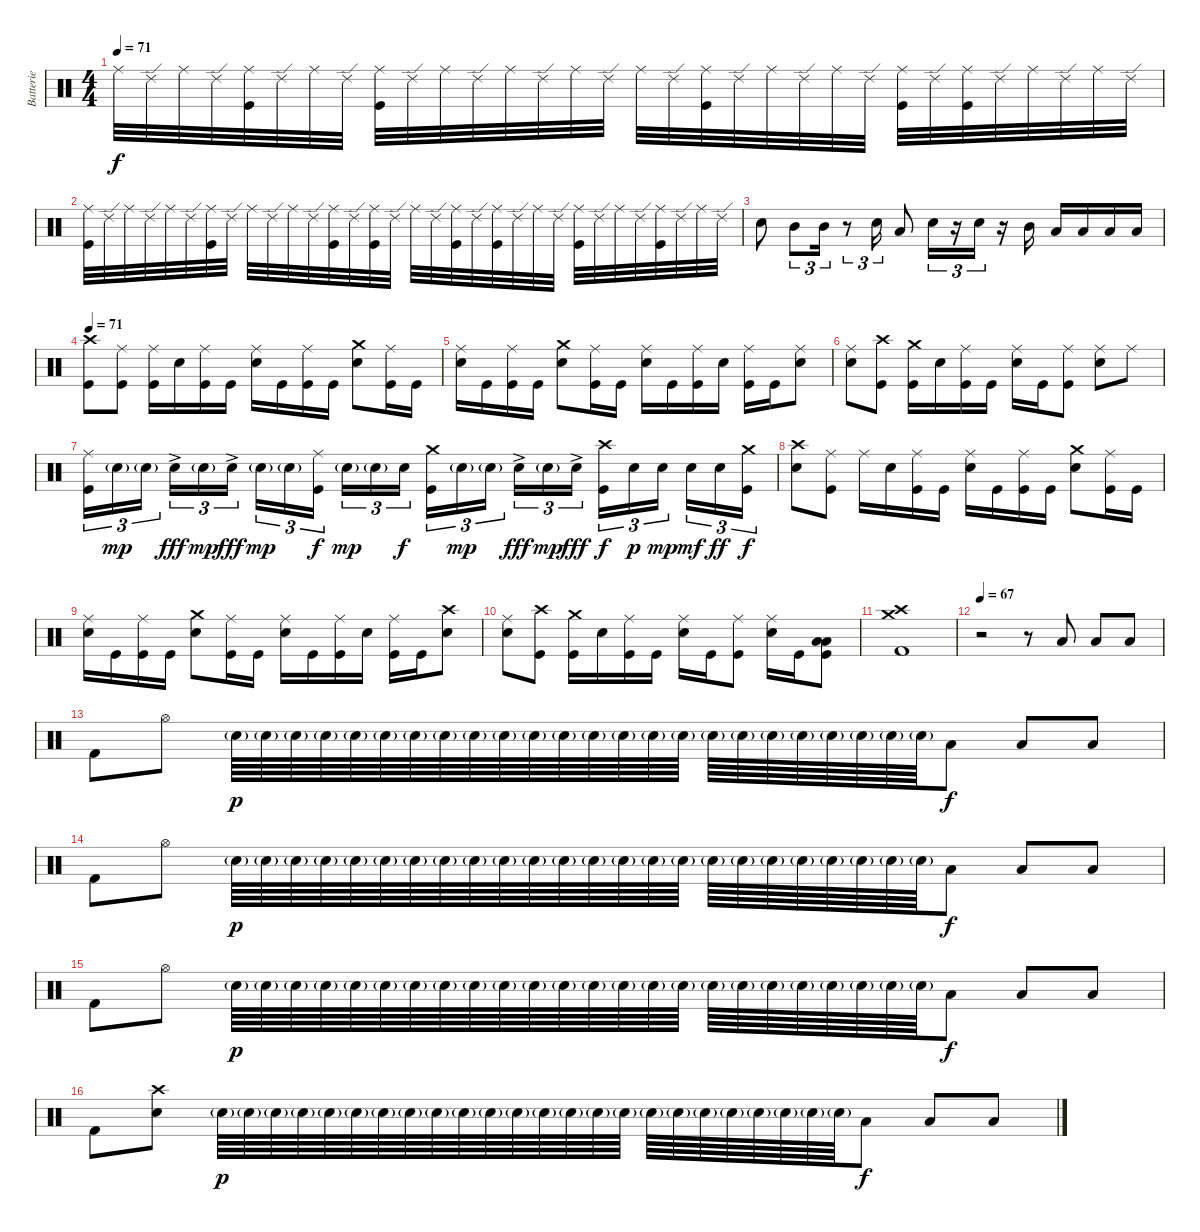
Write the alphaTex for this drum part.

\track ("Batterie" "Batterie") {instrument percussion}
\staff {score}
\articulation defaults
\ts (4 4)
\tempo 71
\clef neutral
\ks c "Ride (middle)".32{dy f} "Ride (edge) 2".32 "Ride (middle)".32 "Ride (edge) 2".32
("Ride (middle)" "Kick (hit)").32 "Ride (edge) 2".32 "Ride (middle)".32 "Ride (edge) 2".32 ("Ride (middle)" "Kick (hit)").32 "Ride (edge) 2".32 "Ride (middle)".32 "Ride (edge) 2".32 "Ride (middle)".32 "Ride (edge) 2".32 "Ride (middle)".32 "Ride (edge) 2".32 "Ride (middle)".32 "Ride (edge) 2".32 ("Ride (middle)" "Kick (hit)").32 "Ride (edge) 2".32 "Ride (middle)".32 "Ride (edge) 2".32 "Ride (middle)".32 "Ride (edge) 2".32 ("Ride (middle)" "Kick (hit)").32 "Ride (edge) 2".32 ("Ride (middle)" "Kick (hit)").32 "Ride (edge) 2".32 "Ride (middle)".32 "Ride (edge) 2".32 "Ride (middle)".32 "Ride (edge) 2".32 |
("Ride (middle)" "Kick (hit)").32 "Ride (edge) 2".32 "Ride (middle)".32 "Ride (edge) 2".32 "Ride (middle)".32 "Ride (edge) 2".32 ("Ride (middle)" "Kick (hit)").32 "Ride (edge) 2".32 "Ride (middle)".32 "Ride (edge) 2".32 "Ride (middle)".32 "Ride (edge) 2".32 ("Ride (middle)" "Kick (hit)").32 "Ride (edge) 2".32 ("Ride (middle)" "Kick (hit)").32 "Ride (edge) 2".32 "Ride (middle)".32 "Ride (edge) 2".32 ("Ride (middle)" "Kick (hit)").32 "Ride (edge) 2".32 ("Ride (middle)" "Kick (hit)").32 "Ride (edge) 2".32 "Ride (middle)".32 "Ride (edge) 2".32 ("Ride (middle)" "Kick (hit)").32 "Ride (edge) 2".32 "Ride (middle)".32 "Ride (edge) 2".32 ("Ride (middle)" "Kick (hit)").32 "Ride (edge) 2".32 "Ride (middle)".32 "Ride (edge) 2".32 |
"Electric Snare (hit)".8{volume 16} "Mid Tom (hit)".8{tu (3 2)} "Mid Tom (hit)".16{tu (3 2)} r.8{tu (3 2)} "Electric Snare (hit)".16{tu (3 2)} "Low Tom (hit)".8 "Electric Snare (hit)".16{tu (3 2)} r.16{tu (3 2)} "Electric Snare (hit)".16{tu (3 2)} r.16 "Mid Tom (hit)".16 "Low Tom (hit)".16 "Low Tom (hit)".16 "Low Floor Tom (hit)".16 "Low Floor Tom (hit)".16 |
\tempo 68
\tempo 71
("Crash high (hit)" "Kick (hit)").8 ("Ride (middle)" "Kick (hit)").8 ("Ride (middle)" "Kick (hit)").16 "Electric Snare (hit)".16 ("Ride (middle)" "Kick (hit)").16 "Kick (hit)".16 ("Ride (middle)" "Electric Snare (hit)").16 "Kick (hit)".16 ("Ride (middle)" "Kick (hit)").16 "Kick (hit)".16 ("Crash medium (hit)" "Electric Snare (hit)").8 ("Ride (middle)" "Kick (hit)").16 "Kick (hit)".16 |
("Ride (middle)" "Electric Snare (hit)").16 "Kick (hit)".16 ("Ride (middle)" "Kick (hit)").16 "Kick (hit)".16 ("Crash medium (hit)" "Electric Snare (hit)").8 ("Ride (middle)" "Kick (hit)").16 "Kick (hit)".16 ("Ride (middle)" "Electric Snare (hit)").16 "Kick (hit)".16 ("Ride (middle)" "Kick (hit)").16 "Electric Snare (hit)".16 ("Ride (middle)" "Kick (hit)").16 "Kick (hit)".16 ("Ride (middle)" "Electric Snare (hit)").8 |
("Ride (middle)" "Electric Snare (hit)").8 ("Crash high (hit)" "Kick (hit)").8 ("Crash medium (hit)" "Kick (hit)").16 "Electric Snare (hit)".16 ("Ride (middle)" "Kick (hit)").16 "Kick (hit)".16 ("Ride (middle)" "Electric Snare (hit)").16 "Kick (hit)".16 ("Ride (middle)" "Kick (hit)").8 ("Ride (middle)" "Electric Snare (hit)").8 "Ride (middle)".8 |
("Ride (middle)" "Kick (hit)").16{tu (3 2)} "Electric Snare (hit)"{g}.16{tu (3 2) dy mp} "Electric Snare (hit)"{g}.16{tu (3 2)} "Electric Snare (hit)"{ac}.16{tu (3 2) dy fff} "Electric Snare (hit)"{g}.16{tu (3 2) dy mp} "Electric Snare (hit)"{ac}.16{tu (3 2) dy fff} "Electric Snare (hit)"{g}.16{tu (3 2) dy mp} "Electric Snare (hit)"{g}.16{tu (3 2)} ("Ride (middle)" "Kick (hit)").16{tu (3 2) dy f} "Electric Snare (hit)"{g}.16{tu (3 2) dy mp} "Electric Snare (hit)"{g}.16{tu (3 2)} "Electric Snare (hit)".16{tu (3 2) dy f} ("Crash medium (hit)" "Kick (hit)").16{tu (3 2)} "Electric Snare (hit)"{g}.16{tu (3 2) dy mp} "Electric Snare (hit)"{g}.16{tu (3 2)} "Electric Snare (hit)"{ac}.16{tu (3 2) dy fff} "Electric Snare (hit)"{g}.16{tu (3 2) dy mp} "Electric Snare (hit)"{ac}.16{tu (3 2) dy fff} ("Crash high (hit)" "Kick (hit)").16{tu (3 2) dy f} "Electric Snare (hit)".16{tu (3 2) dy p} "Electric Snare (hit)".16{tu (3 2) dy mp} "Electric Snare (hit)".16{tu (3 2) dy mf} "Electric Snare (hit)".16{tu (3 2) dy ff} ("Crash medium (hit)" "Kick (hit)").16{tu (3 2) dy f} |
("Crash high (hit)" "Electric Snare (hit)").8 ("Ride (middle)" "Kick (hit)").8 "Ride (middle)".16 "Electric Snare (hit)".16 ("Ride (middle)" "Kick (hit)").16 "Kick (hit)".16 ("Ride (middle)" "Electric Snare (hit)").16 "Kick (hit)".16 ("Ride (middle)" "Kick (hit)").16 "Kick (hit)".16 ("Crash medium (hit)" "Electric Snare (hit)").8 ("Ride (middle)" "Kick (hit)").16 "Kick (hit)".16 |
("Ride (middle)" "Electric Snare (hit)").16 "Kick (hit)".16 ("Ride (middle)" "Kick (hit)").16 "Kick (hit)".16 ("Crash medium (hit)" "Electric Snare (hit)").8 ("Ride (middle)" "Kick (hit)").16 "Kick (hit)".16 ("Ride (middle)" "Electric Snare (hit)").16 "Kick (hit)".16 ("Ride (middle)" "Kick (hit)").16 "Electric Snare (hit)".16 ("Ride (middle)" "Kick (hit)").16 "Kick (hit)".16 ("Crash high (hit)" "Electric Snare (hit)").8 |
("Ride (middle)" "Electric Snare (hit)").8 ("Crash high (hit)" "Kick (hit)").8 ("Crash medium (hit)" "Kick (hit)").16 "Electric Snare (hit)".16 ("Ride (middle)" "Kick (hit)").16 "Kick (hit)".16 ("Ride (middle)" "Electric Snare (hit)").16 "Kick (hit)".16 ("Ride (middle)" "Kick (hit)").8 ("Ride (middle)" "Electric Snare (hit)").16 "Kick (hit)".16 ("Low Tom (hit)" "Low Floor Tom (hit)" "Kick (hit)").8 |
("Crash high (hit)" "Crash medium (hit)" "Kick (hit) 2").1 |
\tempo 67
r.2{volume 11} r.8 "Low Tom (hit)".8 "Low Floor Tom (hit)".8 "Low Tom (hit)".8 |
"Kick (hit) 2".8 "Hi-Hat (open)".8 "Electric Snare (hit)"{g}.64{dy p} "Electric Snare (hit)"{g}.64 "Electric Snare (hit)"{g}.64 "Electric Snare (hit)"{g}.64 "Electric Snare (hit)"{g}.64 "Electric Snare (hit)"{g}.64 "Electric Snare (hit)"{g}.64 "Electric Snare (hit)"{g}.64 "Electric Snare (hit)"{g}.64 "Electric Snare (hit)"{g}.64 "Electric Snare (hit)"{g}.64 "Electric Snare (hit)"{g}.64 "Electric Snare (hit)"{g}.64 "Electric Snare (hit)"{g}.64 "Electric Snare (hit)"{g}.64 "Electric Snare (hit)"{g}.64 "Electric Snare (hit)"{g}.64 "Electric Snare (hit)"{g}.64 "Electric Snare (hit)"{g}.64 "Electric Snare (hit)"{g}.64 "Electric Snare (hit)"{g}.64 "Electric Snare (hit)"{g}.64 "Electric Snare (hit)"{g}.64 "Electric Snare (hit)"{g}.64 "Low Tom (hit)".8{dy f} "Low Floor Tom (hit)".8 "Low Tom (hit)".8 |
"Kick (hit) 2".8 "Hi-Hat (open)".8 "Electric Snare (hit)"{g}.64{dy p} "Electric Snare (hit)"{g}.64 "Electric Snare (hit)"{g}.64 "Electric Snare (hit)"{g}.64 "Electric Snare (hit)"{g}.64 "Electric Snare (hit)"{g}.64 "Electric Snare (hit)"{g}.64 "Electric Snare (hit)"{g}.64 "Electric Snare (hit)"{g}.64 "Electric Snare (hit)"{g}.64 "Electric Snare (hit)"{g}.64 "Electric Snare (hit)"{g}.64 "Electric Snare (hit)"{g}.64 "Electric Snare (hit)"{g}.64 "Electric Snare (hit)"{g}.64 "Electric Snare (hit)"{g}.64 "Electric Snare (hit)"{g}.64 "Electric Snare (hit)"{g}.64 "Electric Snare (hit)"{g}.64 "Electric Snare (hit)"{g}.64 "Electric Snare (hit)"{g}.64 "Electric Snare (hit)"{g}.64 "Electric Snare (hit)"{g}.64 "Electric Snare (hit)"{g}.64 "Low Tom (hit)".8{dy f} "Low Floor Tom (hit)".8 "Low Tom (hit)".8 |
"Kick (hit) 2".8 "Hi-Hat (open)".8 "Electric Snare (hit)"{g}.64{dy p} "Electric Snare (hit)"{g}.64 "Electric Snare (hit)"{g}.64 "Electric Snare (hit)"{g}.64 "Electric Snare (hit)"{g}.64 "Electric Snare (hit)"{g}.64 "Electric Snare (hit)"{g}.64 "Electric Snare (hit)"{g}.64 "Electric Snare (hit)"{g}.64 "Electric Snare (hit)"{g}.64 "Electric Snare (hit)"{g}.64 "Electric Snare (hit)"{g}.64 "Electric Snare (hit)"{g}.64 "Electric Snare (hit)"{g}.64 "Electric Snare (hit)"{g}.64 "Electric Snare (hit)"{g}.64 "Electric Snare (hit)"{g}.64 "Electric Snare (hit)"{g}.64 "Electric Snare (hit)"{g}.64 "Electric Snare (hit)"{g}.64 "Electric Snare (hit)"{g}.64 "Electric Snare (hit)"{g}.64 "Electric Snare (hit)"{g}.64 "Electric Snare (hit)"{g}.64 "Low Tom (hit)".8{dy f} "Low Floor Tom (hit)".8 "Low Tom (hit)".8 |
"Kick (hit) 2".8 ("Crash high (hit)" "Electric Snare (hit)").8 "Electric Snare (hit)"{g}.64{dy p} "Electric Snare (hit)"{g}.64 "Electric Snare (hit)"{g}.64 "Electric Snare (hit)"{g}.64 "Electric Snare (hit)"{g}.64 "Electric Snare (hit)"{g}.64 "Electric Snare (hit)"{g}.64 "Electric Snare (hit)"{g}.64 "Electric Snare (hit)"{g}.64 "Electric Snare (hit)"{g}.64 "Electric Snare (hit)"{g}.64 "Electric Snare (hit)"{g}.64 "Electric Snare (hit)"{g}.64 "Electric Snare (hit)"{g}.64 "Electric Snare (hit)"{g}.64 "Electric Snare (hit)"{g}.64 "Electric Snare (hit)"{g}.64 "Electric Snare (hit)"{g}.64 "Electric Snare (hit)"{g}.64 "Electric Snare (hit)"{g}.64 "Electric Snare (hit)"{g}.64 "Electric Snare (hit)"{g}.64 "Electric Snare (hit)"{g}.64 "Electric Snare (hit)"{g}.64 "Low Tom (hit)".8{dy f} "Low Floor Tom (hit)".8 "Low Tom (hit)".8
